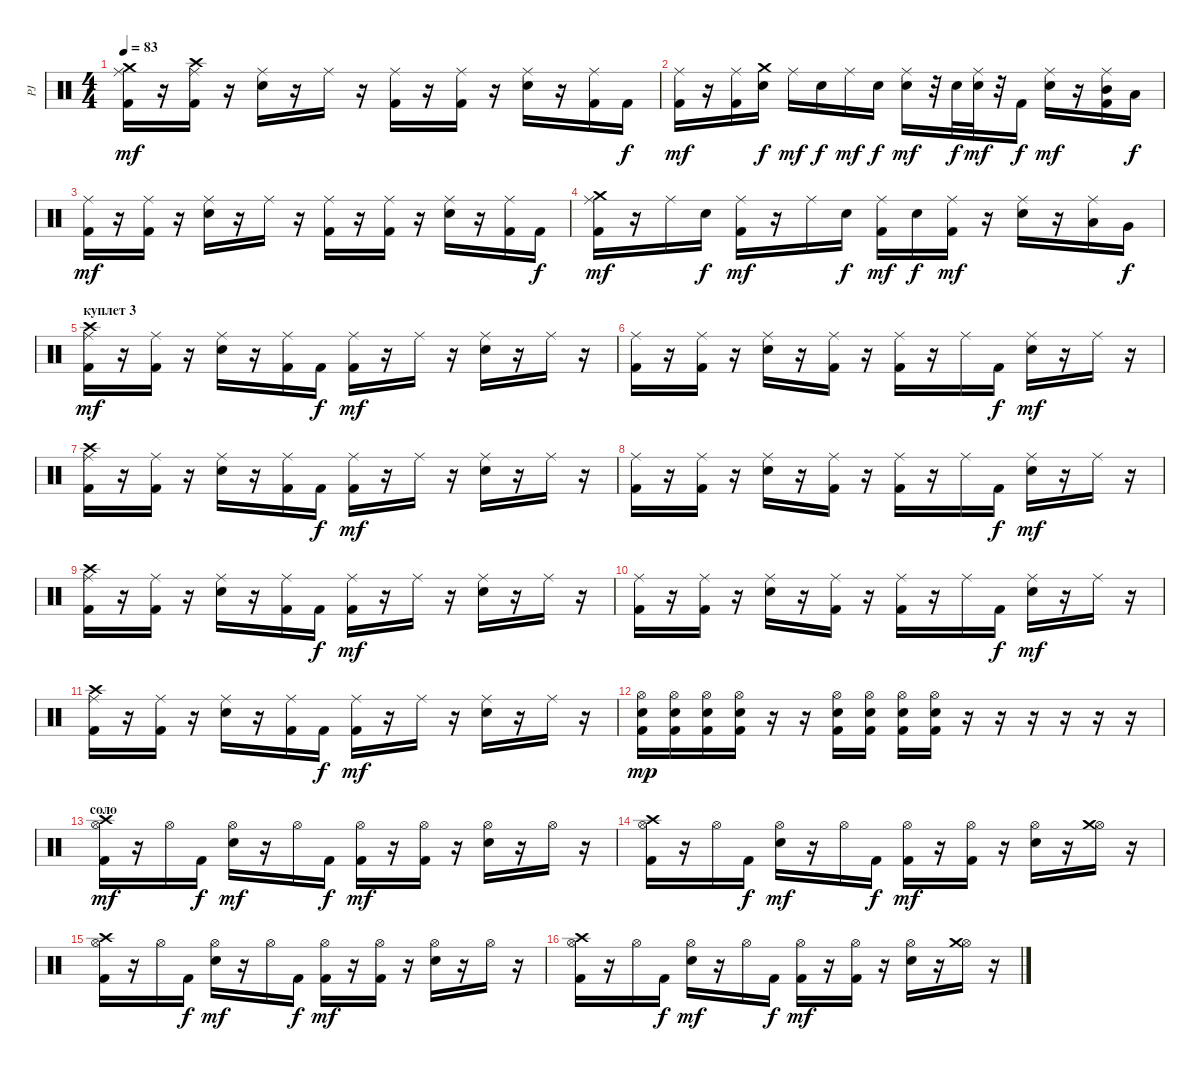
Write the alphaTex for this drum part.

\track ("PJ" "PJ") {instrument percussion}
\staff {score}
\articulation defaults
\ts (4 4)
\tempo 83
\clef neutral
\ks c
("Ride (middle)" "Crash medium (hit)" "Kick (hit) 2").16{dy mf} r.16 ("Ride (middle)" "Crash high (hit)" "Kick (hit) 2").16 r.16 ("Ride (middle)" "Electric Snare (hit)").16 r.16 "Ride (middle)".16 r.16 ("Ride (middle)" "Kick (hit) 2").16 r.16 ("Ride (middle)" "Kick (hit) 2").16 r.16 ("Ride (middle)" "Electric Snare (hit)").16 r.16 ("Ride (middle)" "Kick (hit) 2").16 "Kick (hit) 2".16{dy f} |
("Ride (middle)" "Kick (hit) 2").16{dy mf} r.16 ("Ride (middle)" "Kick (hit) 2").16 ("Crash medium (hit)" "Electric Snare (hit)").16{dy f} "Ride (middle)".16{dy mf} "Electric Snare (hit)".16{dy f} "Ride (middle)".16{dy mf} "Electric Snare (hit)".16{dy f} ("Ride (middle)" "Electric Snare (hit)").16{dy mf} r.32 "Electric Snare (hit)".32{dy f} ("Ride (middle)" "Electric Snare (hit)").32{dy mf} r.32 "Kick (hit) 2".16{dy f} ("Ride (middle)" "Electric Snare (hit)").16{dy mf} r.16 ("Ride (middle)" "Mid Tom (hit)" "Kick (hit) 2").16 "Low Tom (hit)".16{dy f} |
("Ride (middle)" "Kick (hit) 2").16{dy mf} r.16 ("Ride (middle)" "Kick (hit) 2").16 r.16 ("Ride (middle)" "Electric Snare (hit)").16 r.16 "Ride (middle)".16 r.16 ("Ride (middle)" "Kick (hit) 2").16 r.16 ("Ride (middle)" "Kick (hit) 2").16 r.16 ("Ride (middle)" "Electric Snare (hit)").16 r.16 ("Ride (middle)" "Kick (hit) 2").16 "Kick (hit) 2".16{dy f} |
("Ride (middle)" "Crash medium (hit)" "Kick (hit) 2").16{dy mf} r.16 "Ride (middle)".16 "Electric Snare (hit)".16{dy f} ("Ride (middle)" "Kick (hit) 2").16{dy mf} r.16 "Ride (middle)".16 "Electric Snare (hit)".16{dy f} ("Ride (middle)" "Kick (hit) 2").16{dy mf} "Electric Snare (hit)".16{dy f} ("Ride (middle)" "Kick (hit) 2").16{dy mf} r.16 ("Ride (middle)" "Electric Snare (hit)").16 r.16 ("Ride (middle)" "Low Tom (hit)").16 "Very Low Tom (hit)".16{dy f} |
\section ("" "куплет 3")
("Ride (middle)" "Crash high (hit)" "Kick (hit) 2").16{dy mf} r.16 ("Ride (middle)" "Kick (hit) 2").16 r.16 ("Ride (middle)" "Electric Snare (hit)").16 r.16 ("Ride (middle)" "Kick (hit) 2").16 "Kick (hit) 2".16{dy f} ("Ride (middle)" "Kick (hit) 2").16{dy mf} r.16 "Ride (middle)".16 r.16 ("Ride (middle)" "Electric Snare (hit)").16 r.16 "Ride (middle)".16 r.16 |
("Ride (middle)" "Kick (hit) 2").16 r.16 ("Ride (middle)" "Kick (hit) 2").16 r.16 ("Ride (middle)" "Electric Snare (hit)").16 r.16 ("Ride (middle)" "Kick (hit) 2").16 r.16 ("Ride (middle)" "Kick (hit) 2").16 r.16 "Ride (middle)".16 "Kick (hit) 2".16{dy f} ("Ride (middle)" "Electric Snare (hit)").16{dy mf} r.16 "Ride (middle)".16 r.16 |
("Ride (middle)" "Crash high (hit)" "Kick (hit) 2").16 r.16 ("Ride (middle)" "Kick (hit) 2").16 r.16 ("Ride (middle)" "Electric Snare (hit)").16 r.16 ("Ride (middle)" "Kick (hit) 2").16 "Kick (hit) 2".16{dy f} ("Ride (middle)" "Kick (hit) 2").16{dy mf} r.16 "Ride (middle)".16 r.16 ("Ride (middle)" "Electric Snare (hit)").16 r.16 "Ride (middle)".16 r.16 |
("Ride (middle)" "Kick (hit) 2").16 r.16 ("Ride (middle)" "Kick (hit) 2").16 r.16 ("Ride (middle)" "Electric Snare (hit)").16 r.16 ("Ride (middle)" "Kick (hit) 2").16 r.16 ("Ride (middle)" "Kick (hit) 2").16 r.16 "Ride (middle)".16 "Kick (hit) 2".16{dy f} ("Ride (middle)" "Electric Snare (hit)").16{dy mf} r.16 "Ride (middle)".16 r.16 |
("Ride (middle)" "Crash high (hit)" "Kick (hit) 2").16 r.16 ("Ride (middle)" "Kick (hit) 2").16 r.16 ("Ride (middle)" "Electric Snare (hit)").16 r.16 ("Ride (middle)" "Kick (hit) 2").16 "Kick (hit) 2".16{dy f} ("Ride (middle)" "Kick (hit) 2").16{dy mf} r.16 "Ride (middle)".16 r.16 ("Ride (middle)" "Electric Snare (hit)").16 r.16 "Ride (middle)".16 r.16 |
("Ride (middle)" "Kick (hit) 2").16 r.16 ("Ride (middle)" "Kick (hit) 2").16 r.16 ("Ride (middle)" "Electric Snare (hit)").16 r.16 ("Ride (middle)" "Kick (hit) 2").16 r.16 ("Ride (middle)" "Kick (hit) 2").16 r.16 "Ride (middle)".16 "Kick (hit) 2".16{dy f} ("Ride (middle)" "Electric Snare (hit)").16{dy mf} r.16 "Ride (middle)".16 r.16 |
("Ride (middle)" "Crash high (hit)" "Kick (hit) 2").16 r.16 ("Ride (middle)" "Kick (hit) 2").16 r.16 ("Ride (middle)" "Electric Snare (hit)").16 r.16 ("Ride (middle)" "Kick (hit) 2").16 "Kick (hit) 2".16{dy f} ("Ride (middle)" "Kick (hit) 2").16{dy mf} r.16 "Ride (middle)".16 r.16 ("Ride (middle)" "Electric Snare (hit)").16 r.16 "Ride (middle)".16 r.16 |
("Hi-Hat (open)" "Electric Snare (hit)" "Kick (hit) 2").16{dy mp} ("Hi-Hat (open)" "Electric Snare (hit)" "Kick (hit) 2").16 ("Hi-Hat (open)" "Electric Snare (hit)" "Kick (hit) 2").16 ("Hi-Hat (open)" "Electric Snare (hit)" "Kick (hit) 2").16 r.16 r.16 ("Hi-Hat (open)" "Electric Snare (hit)" "Kick (hit) 2").16 ("Hi-Hat (open)" "Electric Snare (hit)" "Kick (hit) 2").16 ("Hi-Hat (open)" "Electric Snare (hit)" "Kick (hit) 2").16 ("Hi-Hat (open)" "Electric Snare (hit)" "Kick (hit) 2").16 r.16 r.16 r.16 r.16 r.16 r.16 |
\section ("" "соло")
("Hi-Hat (open)" "Crash high (hit)" "Kick (hit) 2").16{dy mf} r.16 "Hi-Hat (open)".16 "Kick (hit) 2".16{dy f} ("Hi-Hat (open)" "Electric Snare (hit)").16{dy mf} r.16 "Hi-Hat (open)".16 "Kick (hit) 2".16{dy f} ("Hi-Hat (open)" "Kick (hit) 2").16{dy mf} r.16 ("Hi-Hat (open)" "Kick (hit) 2").16 r.16 ("Hi-Hat (open)" "Electric Snare (hit)").16 r.16 "Hi-Hat (open)".16 r.16 |
("Hi-Hat (open)" "Crash high (hit)" "Kick (hit) 2").16 r.16 "Hi-Hat (open)".16 "Kick (hit) 2".16{dy f} ("Hi-Hat (open)" "Electric Snare (hit)").16{dy mf} r.16 "Hi-Hat (open)".16 "Kick (hit) 2".16{dy f} ("Hi-Hat (open)" "Kick (hit) 2").16{dy mf} r.16 ("Hi-Hat (open)" "Kick (hit) 2").16 r.16 ("Hi-Hat (open)" "Electric Snare (hit)").16 r.16 ("Hi-Hat (open)" "Crash medium (hit)").16 r.16 |
("Hi-Hat (open)" "Crash high (hit)" "Kick (hit) 2").16 r.16 "Hi-Hat (open)".16 "Kick (hit) 2".16{dy f} ("Hi-Hat (open)" "Electric Snare (hit)").16{dy mf} r.16 "Hi-Hat (open)".16 "Kick (hit) 2".16{dy f} ("Hi-Hat (open)" "Kick (hit) 2").16{dy mf} r.16 ("Hi-Hat (open)" "Kick (hit) 2").16 r.16 ("Hi-Hat (open)" "Electric Snare (hit)").16 r.16 "Hi-Hat (open)".16 r.16 |
("Hi-Hat (open)" "Crash high (hit)" "Kick (hit) 2").16 r.16 "Hi-Hat (open)".16 "Kick (hit) 2".16{dy f} ("Hi-Hat (open)" "Electric Snare (hit)").16{dy mf} r.16 "Hi-Hat (open)".16 "Kick (hit) 2".16{dy f} ("Hi-Hat (open)" "Kick (hit) 2").16{dy mf} r.16 ("Hi-Hat (open)" "Kick (hit) 2").16 r.16 ("Hi-Hat (open)" "Electric Snare (hit)").16 r.16 ("Hi-Hat (open)" "Crash medium (hit)").16 r.16
